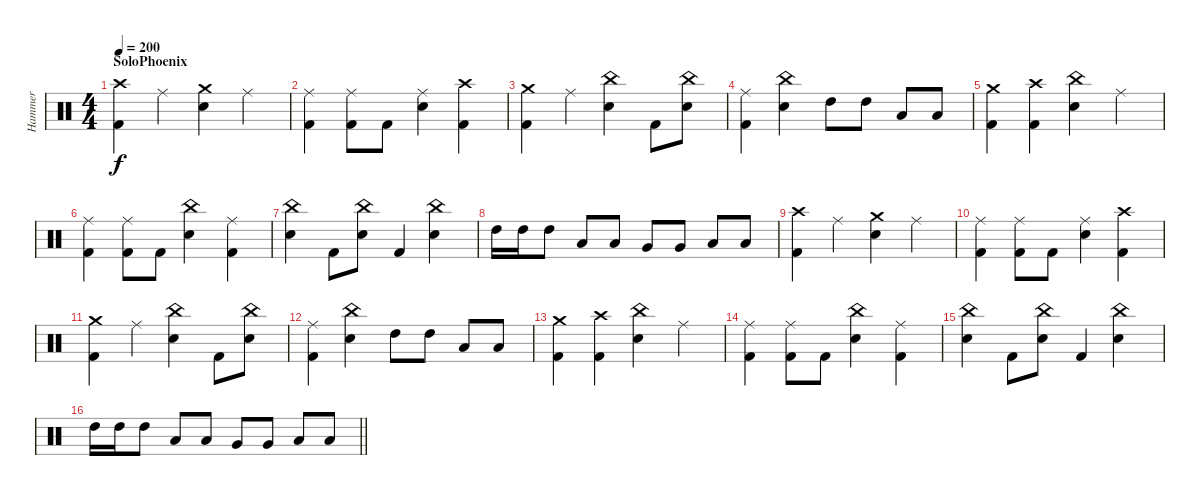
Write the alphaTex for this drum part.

\track ("Hammer" "Hammer") {instrument percussion}
\staff {score}
\articulation defaults
\ts (4 4)
\section ("" "SoloPhoenix")
\tempo 200
\clef neutral
\ks c
("Kick (hit) 2" "Crash high (hit)").4{dy f} "Ride (middle)".4 ("Crash medium (hit)" "Snare (hit) 2").4 "Ride (middle)".4 |
("Kick (hit) 2" "Ride (middle)").4 ("Kick (hit) 2" "Ride (middle)").8 "Kick (hit) 2".8 ("Snare (hit) 2" "Ride (middle)").4 ("Crash high (hit)" "Kick (hit) 2").4 |
("Kick (hit) 2" "Crash medium (hit)").4 "Ride (middle)".4 ("China (hit)" "Snare (hit) 2").4 "Kick (hit) 2".8 ("Snare (hit) 2" "China (hit)").8 |
("Kick (hit) 2" "Ride (middle)").4 ("China (hit)" "Snare (hit) 2").4 "High Tom (hit)".8 "High Tom (hit)".8 "Low Tom (hit)".8 "Low Tom (hit)".8 |
("Kick (hit) 2" "Crash medium (hit)").4 ("Crash high (hit)" "Kick (hit) 2").4 ("China (hit)" "Snare (hit) 2").4 "Ride (middle)".4 |
("Kick (hit) 2" "Ride (middle)").4 ("Kick (hit) 2" "Ride (middle)").8 "Kick (hit) 2".8 ("China (hit)" "Snare (hit) 2").4 ("Kick (hit) 2" "Ride (middle)").4 |
("China (hit)" "Snare (hit) 2").4 "Kick (hit) 2".8 ("Snare (hit) 2" "China (hit)").8 "Kick (hit) 2".4 ("Snare (hit) 2" "China (hit)").4 |
"High Tom (hit)".16 "High Tom (hit)".16 "High Tom (hit)".8 "Low Tom (hit)".8 "Low Tom (hit)".8 "Very Low Tom (hit)".8 "Very Low Tom (hit)".8 "Low Floor Tom (hit)".8 "Low Floor Tom (hit)".8 |
("Kick (hit) 2" "Crash high (hit)").4 "Ride (middle)".4 ("Crash medium (hit)" "Snare (hit) 2").4 "Ride (middle)".4 |
("Kick (hit) 2" "Ride (middle)").4 ("Kick (hit) 2" "Ride (middle)").8 "Kick (hit) 2".8 ("Snare (hit) 2" "Ride (middle)").4 ("Crash high (hit)" "Kick (hit) 2").4 |
("Kick (hit) 2" "Crash medium (hit)").4 "Ride (middle)".4 ("China (hit)" "Snare (hit) 2").4 "Kick (hit) 2".8 ("Snare (hit) 2" "China (hit)").8 |
("Kick (hit) 2" "Ride (middle)").4 ("China (hit)" "Snare (hit) 2").4 "High Tom (hit)".8 "High Tom (hit)".8 "Low Tom (hit)".8 "Low Tom (hit)".8 |
("Kick (hit) 2" "Crash medium (hit)").4 ("Crash high (hit)" "Kick (hit) 2").4 ("China (hit)" "Snare (hit) 2").4 "Ride (middle)".4 |
("Kick (hit) 2" "Ride (middle)").4 ("Kick (hit) 2" "Ride (middle)").8 "Kick (hit) 2".8 ("China (hit)" "Snare (hit) 2").4 ("Kick (hit) 2" "Ride (middle)").4 |
("China (hit)" "Snare (hit) 2").4 "Kick (hit) 2".8 ("Snare (hit) 2" "China (hit)").8 "Kick (hit) 2".4 ("Snare (hit) 2" "China (hit)").4 |
\barLineRight lightlight "High Tom (hit)".16 "High Tom (hit)".16 "High Tom (hit)".8 "Low Tom (hit)".8 "Low Tom (hit)".8 "Very Low Tom (hit)".8 "Very Low Tom (hit)".8 "Low Floor Tom (hit)".8 "Low Floor Tom (hit)".8
